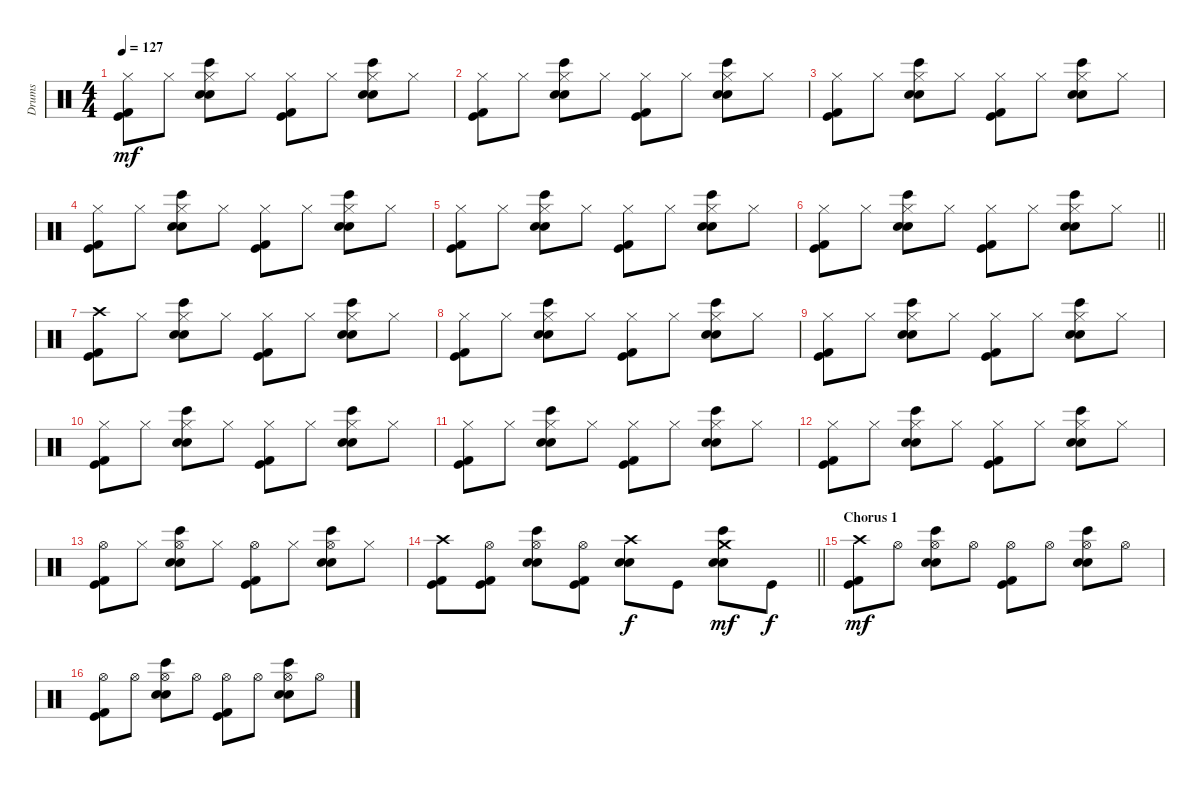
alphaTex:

\track ("Drums" "Drums") {instrument percussion}
\staff {score}
\articulation defaults
\ts (4 4)
\tempo 127
\clef neutral
\ks c
("Hi-Hat (closed)" "Kick (hit) 2" "Kick (hit)").8{dy mf} "Hi-Hat (closed)".8 ("Hi-Hat (closed)" "Bongo High (hit)" "Snare (hit) 2" "Electric Snare (hit)").8 "Hi-Hat (closed)".8 ("Hi-Hat (closed)" "Kick (hit) 2" "Kick (hit)").8 "Hi-Hat (closed)".8 ("Hi-Hat (closed)" "Bongo High (hit)" "Snare (hit) 2" "Electric Snare (hit)").8 "Hi-Hat (closed)".8 |
("Hi-Hat (closed)" "Kick (hit) 2" "Kick (hit)").8 "Hi-Hat (closed)".8 ("Hi-Hat (closed)" "Bongo High (hit)" "Snare (hit) 2" "Electric Snare (hit)").8 "Hi-Hat (closed)".8 ("Hi-Hat (closed)" "Kick (hit) 2" "Kick (hit)").8 "Hi-Hat (closed)".8 ("Hi-Hat (closed)" "Bongo High (hit)" "Snare (hit) 2" "Electric Snare (hit)").8 "Hi-Hat (closed)".8 |
("Hi-Hat (closed)" "Kick (hit) 2" "Kick (hit)").8 "Hi-Hat (closed)".8 ("Hi-Hat (closed)" "Bongo High (hit)" "Snare (hit) 2" "Electric Snare (hit)").8 "Hi-Hat (closed)".8 ("Hi-Hat (closed)" "Kick (hit) 2" "Kick (hit)").8 "Hi-Hat (closed)".8 ("Hi-Hat (closed)" "Bongo High (hit)" "Snare (hit) 2" "Electric Snare (hit)").8 "Hi-Hat (closed)".8 |
("Hi-Hat (closed)" "Kick (hit) 2" "Kick (hit)").8 "Hi-Hat (closed)".8 ("Hi-Hat (closed)" "Bongo High (hit)" "Snare (hit) 2" "Electric Snare (hit)").8 "Hi-Hat (closed)".8 ("Hi-Hat (closed)" "Kick (hit) 2" "Kick (hit)").8 "Hi-Hat (closed)".8 ("Hi-Hat (closed)" "Bongo High (hit)" "Snare (hit) 2" "Electric Snare (hit)").8 "Hi-Hat (closed)".8 |
("Hi-Hat (closed)" "Kick (hit) 2" "Kick (hit)").8 "Hi-Hat (closed)".8 ("Hi-Hat (closed)" "Bongo High (hit)" "Snare (hit) 2" "Electric Snare (hit)").8 "Hi-Hat (closed)".8 ("Hi-Hat (closed)" "Kick (hit) 2" "Kick (hit)").8 "Hi-Hat (closed)".8 ("Hi-Hat (closed)" "Bongo High (hit)" "Snare (hit) 2" "Electric Snare (hit)").8 "Hi-Hat (closed)".8 |
\barLineRight lightlight
("Hi-Hat (closed)" "Kick (hit) 2" "Kick (hit)").8 "Hi-Hat (closed)".8 ("Hi-Hat (closed)" "Bongo High (hit)" "Snare (hit) 2" "Electric Snare (hit)").8 "Hi-Hat (closed)".8 ("Hi-Hat (closed)" "Kick (hit) 2" "Kick (hit)").8 "Hi-Hat (closed)".8 ("Hi-Hat (closed)" "Bongo High (hit)" "Snare (hit) 2" "Electric Snare (hit)").8 "Hi-Hat (closed)".8 |
("Crash high (hit)" "Kick (hit) 2" "Kick (hit)").8 "Hi-Hat (closed)".8 ("Hi-Hat (closed)" "Bongo High (hit)" "Snare (hit) 2" "Electric Snare (hit)").8 "Hi-Hat (closed)".8 ("Hi-Hat (closed)" "Kick (hit) 2" "Kick (hit)").8 "Hi-Hat (closed)".8 ("Hi-Hat (closed)" "Bongo High (hit)" "Snare (hit) 2" "Electric Snare (hit)").8 "Hi-Hat (closed)".8 |
("Hi-Hat (closed)" "Kick (hit) 2" "Kick (hit)").8 "Hi-Hat (closed)".8 ("Hi-Hat (closed)" "Bongo High (hit)" "Snare (hit) 2" "Electric Snare (hit)").8 "Hi-Hat (closed)".8 ("Hi-Hat (closed)" "Kick (hit) 2" "Kick (hit)").8 "Hi-Hat (closed)".8 ("Hi-Hat (closed)" "Bongo High (hit)" "Snare (hit) 2" "Electric Snare (hit)").8 "Hi-Hat (closed)".8 |
("Hi-Hat (closed)" "Kick (hit) 2" "Kick (hit)").8 "Hi-Hat (closed)".8 ("Hi-Hat (closed)" "Bongo High (hit)" "Snare (hit) 2" "Electric Snare (hit)").8 "Hi-Hat (closed)".8 ("Hi-Hat (closed)" "Kick (hit) 2" "Kick (hit)").8 "Hi-Hat (closed)".8 ("Hi-Hat (closed)" "Bongo High (hit)" "Snare (hit) 2" "Electric Snare (hit)").8 "Hi-Hat (closed)".8 |
("Hi-Hat (closed)" "Kick (hit) 2" "Kick (hit)").8 "Hi-Hat (closed)".8 ("Hi-Hat (closed)" "Bongo High (hit)" "Snare (hit) 2" "Electric Snare (hit)").8 "Hi-Hat (closed)".8 ("Hi-Hat (closed)" "Kick (hit) 2" "Kick (hit)").8 "Hi-Hat (closed)".8 ("Hi-Hat (closed)" "Bongo High (hit)" "Snare (hit) 2" "Electric Snare (hit)").8 "Hi-Hat (closed)".8 |
("Hi-Hat (closed)" "Kick (hit) 2" "Kick (hit)").8 "Hi-Hat (closed)".8 ("Hi-Hat (closed)" "Bongo High (hit)" "Snare (hit) 2" "Electric Snare (hit)").8 "Hi-Hat (closed)".8 ("Hi-Hat (closed)" "Kick (hit) 2" "Kick (hit)").8 "Hi-Hat (closed)".8 ("Hi-Hat (closed)" "Bongo High (hit)" "Snare (hit) 2" "Electric Snare (hit)").8 "Hi-Hat (closed)".8 |
("Hi-Hat (closed)" "Kick (hit) 2" "Kick (hit)").8 "Hi-Hat (closed)".8 ("Hi-Hat (closed)" "Bongo High (hit)" "Snare (hit) 2" "Electric Snare (hit)").8 "Hi-Hat (closed)".8 ("Hi-Hat (closed)" "Kick (hit) 2" "Kick (hit)").8 "Hi-Hat (closed)".8 ("Hi-Hat (closed)" "Bongo High (hit)" "Snare (hit) 2" "Electric Snare (hit)").8 "Hi-Hat (closed)".8 |
("Hi-Hat (open)" "Kick (hit) 2" "Kick (hit)").8 "Hi-Hat (closed)".8 ("Hi-Hat (open)" "Bongo High (hit)" "Snare (hit) 2" "Electric Snare (hit)").8 "Hi-Hat (closed)".8 ("Hi-Hat (open)" "Kick (hit) 2" "Kick (hit)").8 "Hi-Hat (closed)".8 ("Hi-Hat (open)" "Bongo High (hit)" "Snare (hit) 2" "Electric Snare (hit)").8 "Hi-Hat (closed)".8 |
\barLineRight lightlight
("Crash high (hit)" "Kick (hit) 2" "Kick (hit)").8 ("Hi-Hat (open)" "Kick (hit) 2" "Kick (hit)").8 ("Hi-Hat (open)" "Bongo High (hit)" "Snare (hit) 2" "Electric Snare (hit)").8 ("Hi-Hat (open)" "Kick (hit) 2" "Kick (hit)").8 ("Crash high (hit)" "Snare (hit) 2" "Electric Snare (hit)").8{dy f} "Kick (hit)".8 ("Crash medium (hit)" "Bongo High (hit)" "Snare (hit) 2" "Electric Snare (hit)").8{dy mf} "Kick (hit)".8{dy f} |
\section ("" "Chorus 1")
("Crash high (hit)" "Kick (hit) 2" "Kick (hit)").8{dy mf} "Hi-Hat (open)".8 ("Hi-Hat (open)" "Bongo High (hit)" "Snare (hit) 2" "Electric Snare (hit)").8 "Hi-Hat (open)".8 ("Hi-Hat (open)" "Kick (hit) 2" "Kick (hit)").8 "Hi-Hat (open)".8 ("Hi-Hat (open)" "Bongo High (hit)" "Snare (hit) 2" "Electric Snare (hit)").8 "Hi-Hat (open)".8 |
("Hi-Hat (open)" "Kick (hit) 2" "Kick (hit)").8 "Hi-Hat (open)".8 ("Hi-Hat (open)" "Bongo High (hit)" "Snare (hit) 2" "Electric Snare (hit)").8 "Hi-Hat (open)".8 ("Hi-Hat (open)" "Kick (hit) 2" "Kick (hit)").8 "Hi-Hat (open)".8 ("Hi-Hat (open)" "Bongo High (hit)" "Snare (hit) 2" "Electric Snare (hit)").8 "Hi-Hat (open)".8
